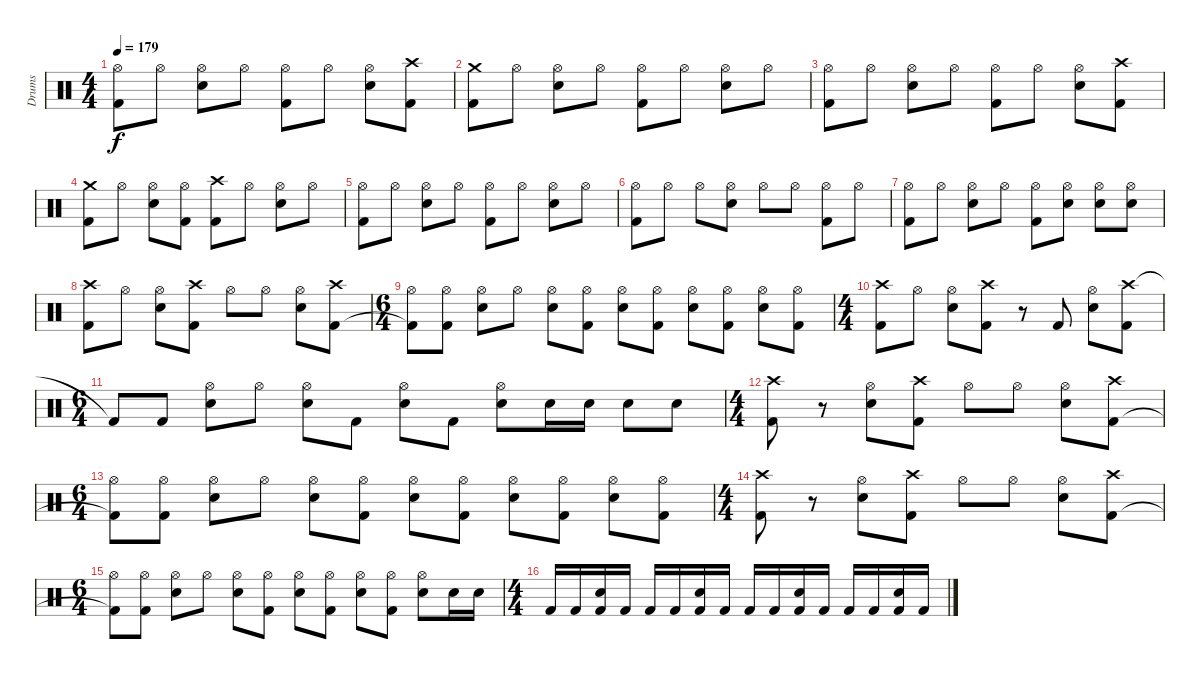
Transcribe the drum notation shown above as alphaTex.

\track ("Drums" "Drums") {instrument percussion}
\staff {score}
\articulation defaults
\ts (4 4)
\tempo 179
\clef neutral
\ks c
("Hi-Hat (open)" "Kick (hit) 2").8{dy f} "Hi-Hat (open)".8 ("Hi-Hat (open)" "Electric Snare (hit)").8 "Hi-Hat (open)".8 ("Hi-Hat (open)" "Kick (hit) 2").8 "Hi-Hat (open)".8 ("Hi-Hat (open)" "Electric Snare (hit)").8 ("Crash high (hit)" "Kick (hit) 2").8 |
("Crash medium (hit)" "Kick (hit) 2").8 "Hi-Hat (open)".8 ("Hi-Hat (open)" "Electric Snare (hit)").8 "Hi-Hat (open)".8 ("Hi-Hat (open)" "Kick (hit) 2").8 "Hi-Hat (open)".8 ("Hi-Hat (open)" "Electric Snare (hit)").8 "Hi-Hat (open)".8 |
("Hi-Hat (open)" "Kick (hit) 2").8 "Hi-Hat (open)".8 ("Hi-Hat (open)" "Electric Snare (hit)").8 "Hi-Hat (open)".8 ("Hi-Hat (open)" "Kick (hit) 2").8 "Hi-Hat (open)".8 ("Hi-Hat (open)" "Electric Snare (hit)").8 ("Crash high (hit)" "Kick (hit) 2").8 |
("Crash medium (hit)" "Kick (hit) 2").8 "Hi-Hat (open)".8 ("Hi-Hat (open)" "Electric Snare (hit)").8 ("Hi-Hat (open)" "Kick (hit) 2").8 ("Crash high (hit)" "Kick (hit) 2").8 "Hi-Hat (open)".8 ("Hi-Hat (open)" "Electric Snare (hit)").8 "Hi-Hat (open)".8 |
("Hi-Hat (open)" "Kick (hit) 2").8 "Hi-Hat (open)".8 ("Hi-Hat (open)" "Electric Snare (hit)").8 "Hi-Hat (open)".8 ("Hi-Hat (open)" "Kick (hit) 2").8 "Hi-Hat (open)".8 ("Hi-Hat (open)" "Electric Snare (hit)").8 "Hi-Hat (open)".8 |
("Hi-Hat (open)" "Kick (hit) 2").8 "Hi-Hat (open)".8 "Hi-Hat (open)".8 ("Hi-Hat (open)" "Electric Snare (hit)").8 "Hi-Hat (open)".8 "Hi-Hat (open)".8 ("Hi-Hat (open)" "Kick (hit) 2").8 "Hi-Hat (open)".8 |
("Hi-Hat (open)" "Kick (hit) 2").8 "Hi-Hat (open)".8 ("Hi-Hat (open)" "Electric Snare (hit)").8 "Hi-Hat (open)".8 ("Hi-Hat (open)" "Kick (hit) 2").8 ("Hi-Hat (open)" "Electric Snare (hit)").8 ("Hi-Hat (open)" "Electric Snare (hit)").8 ("Hi-Hat (open)" "Electric Snare (hit)").8 |
("Crash high (hit)" "Kick (hit) 2").8 "Hi-Hat (open)".8 ("Hi-Hat (open)" "Electric Snare (hit)").8 ("Crash high (hit)" "Kick (hit) 2").8 "Hi-Hat (open)".8 "Hi-Hat (open)".8 ("Hi-Hat (open)" "Electric Snare (hit)").8 ("Crash high (hit)" "Kick (hit) 2").8 |
\ts (6 4)
("Hi-Hat (open)" "Kick (hit) 2"{t}).8 ("Hi-Hat (open)" "Kick (hit) 2").8 ("Hi-Hat (open)" "Electric Snare (hit)").8 "Hi-Hat (open)".8 ("Hi-Hat (open)" "Electric Snare (hit)").8 ("Hi-Hat (open)" "Kick (hit) 2").8 ("Hi-Hat (open)" "Electric Snare (hit)").8 ("Hi-Hat (open)" "Kick (hit) 2").8 ("Hi-Hat (open)" "Electric Snare (hit)").8 ("Hi-Hat (open)" "Kick (hit) 2").8 ("Hi-Hat (open)" "Electric Snare (hit)").8 ("Hi-Hat (open)" "Kick (hit) 2").8 |
\ts (4 4)
("Crash high (hit)" "Kick (hit) 2").8 "Hi-Hat (open)".8 ("Hi-Hat (open)" "Electric Snare (hit)").8 ("Crash high (hit)" "Kick (hit) 2").8 r.8 "Kick (hit) 2".8 ("Hi-Hat (open)" "Electric Snare (hit)").8 ("Crash high (hit)" "Kick (hit) 2").8 |
\ts (6 4)
"Kick (hit) 2"{t}.8 "Kick (hit) 2".8 ("Hi-Hat (open)" "Electric Snare (hit)").8 "Hi-Hat (open)".8 ("Hi-Hat (open)" "Electric Snare (hit)").8 "Kick (hit) 2".8 ("Hi-Hat (open)" "Electric Snare (hit)").8 "Kick (hit) 2".8 ("Hi-Hat (open)" "Electric Snare (hit)").8 "Electric Snare (hit)".16 "Electric Snare (hit)".16 "Electric Snare (hit)".8 "Electric Snare (hit)".8 |
\ts (4 4)
("Crash high (hit)" "Kick (hit) 2").8 r.8 ("Hi-Hat (open)" "Electric Snare (hit)").8 ("Crash high (hit)" "Kick (hit) 2").8 "Hi-Hat (open)".8 "Hi-Hat (open)".8 ("Hi-Hat (open)" "Electric Snare (hit)").8 ("Crash high (hit)" "Kick (hit) 2").8 |
\ts (6 4)
("Hi-Hat (open)" "Kick (hit) 2"{t}).8 ("Hi-Hat (open)" "Kick (hit) 2").8 ("Hi-Hat (open)" "Electric Snare (hit)").8 "Hi-Hat (open)".8 ("Hi-Hat (open)" "Electric Snare (hit)").8 ("Hi-Hat (open)" "Kick (hit) 2").8 ("Hi-Hat (open)" "Electric Snare (hit)").8 ("Hi-Hat (open)" "Kick (hit) 2").8 ("Hi-Hat (open)" "Electric Snare (hit)").8 ("Hi-Hat (open)" "Kick (hit) 2").8 ("Hi-Hat (open)" "Electric Snare (hit)").8 ("Hi-Hat (open)" "Kick (hit) 2").8 |
\ts (4 4)
("Crash high (hit)" "Kick (hit) 2").8 r.8 ("Hi-Hat (open)" "Electric Snare (hit)").8 ("Crash high (hit)" "Kick (hit) 2").8 "Hi-Hat (open)".8 "Hi-Hat (open)".8 ("Hi-Hat (open)" "Electric Snare (hit)").8 ("Crash high (hit)" "Kick (hit) 2").8 |
\ts (6 4)
("Hi-Hat (open)" "Kick (hit) 2"{t}).8 ("Hi-Hat (open)" "Kick (hit) 2").8 ("Hi-Hat (open)" "Electric Snare (hit)").8 "Hi-Hat (open)".8 ("Hi-Hat (open)" "Electric Snare (hit)").8 ("Hi-Hat (open)" "Kick (hit) 2").8 ("Hi-Hat (open)" "Electric Snare (hit)").8 ("Hi-Hat (open)" "Kick (hit) 2").8 ("Hi-Hat (open)" "Electric Snare (hit)").8 ("Hi-Hat (open)" "Kick (hit) 2").8 ("Hi-Hat (open)" "Electric Snare (hit)").8 "Electric Snare (hit)".16 "Electric Snare (hit)".16 |
\ts (4 4)
"Kick (hit) 2".16 "Kick (hit) 2".16 ("Electric Snare (hit)" "Kick (hit) 2").16 "Kick (hit) 2".16 "Kick (hit) 2".16 "Kick (hit) 2".16 ("Electric Snare (hit)" "Kick (hit) 2").16 "Kick (hit) 2".16 "Kick (hit) 2".16 "Kick (hit) 2".16 ("Electric Snare (hit)" "Kick (hit) 2").16 "Kick (hit) 2".16 "Kick (hit) 2".16 "Kick (hit) 2".16 ("Electric Snare (hit)" "Kick (hit) 2").16 "Kick (hit) 2".16
